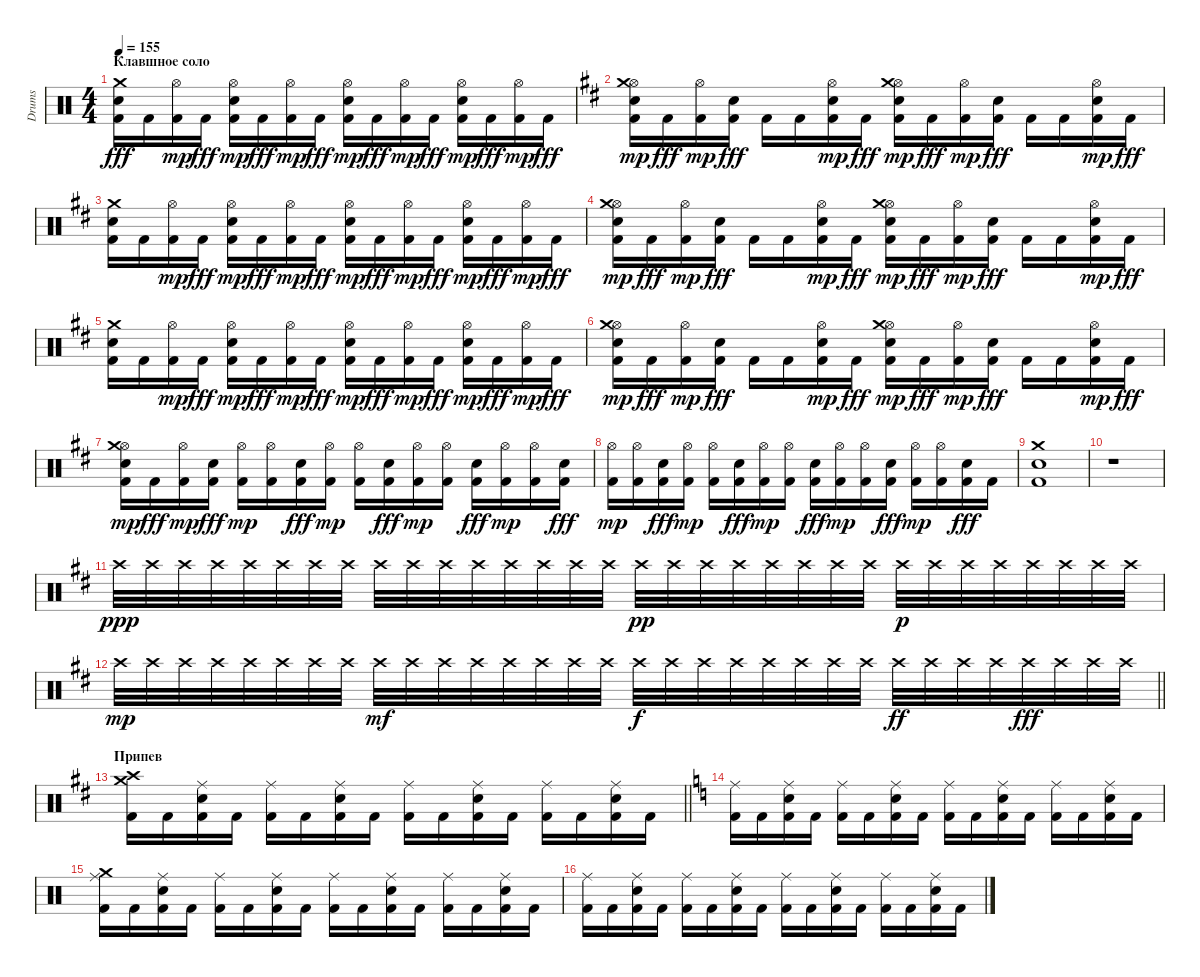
\track ("Drums" "Drums") {instrument percussion}
\staff {score}
\articulation defaults
\ts (4 4)
\section ("" "Клавшное соло")
\tempo 155
\clef neutral
\ks c
("Kick (hit) 2" "Snare (hit) 2" "Crash medium (hit)").16{dy fff} "Kick (hit) 2".16 ("Kick (hit) 2" "Hi-Hat (open)").16{dy mp} "Kick (hit) 2".16{dy fff} ("Kick (hit) 2" "Hi-Hat (open)" "Snare (hit) 2").16{dy mp} "Kick (hit) 2".16{dy fff} ("Kick (hit) 2" "Hi-Hat (open)").16{dy mp} "Kick (hit) 2".16{dy fff} ("Kick (hit) 2" "Hi-Hat (open)" "Snare (hit) 2").16{dy mp} "Kick (hit) 2".16{dy fff} ("Kick (hit) 2" "Hi-Hat (open)").16{dy mp} "Kick (hit) 2".16{dy fff} ("Kick (hit) 2" "Hi-Hat (open)" "Snare (hit) 2").16{dy mp} "Kick (hit) 2".16{dy fff} ("Kick (hit) 2" "Hi-Hat (open)").16{dy mp} "Kick (hit) 2".16{dy fff} |
\ks d
("Kick (hit) 2" "Hi-Hat (open)" "Snare (hit) 2" "Crash medium (hit)").16{dy mp} "Kick (hit) 2".16{dy fff} ("Kick (hit) 2" "Hi-Hat (open)").16{dy mp} ("Kick (hit) 2" "Snare (hit) 2").16{dy fff} "Kick (hit) 2".16 "Kick (hit) 2".16 ("Kick (hit) 2" "Hi-Hat (open)" "Snare (hit) 2").16{dy mp} "Kick (hit) 2".16{dy fff} ("Kick (hit) 2" "Hi-Hat (open)" "Snare (hit) 2" "Crash medium (hit)").16{dy mp} "Kick (hit) 2".16{dy fff} ("Kick (hit) 2" "Hi-Hat (open)").16{dy mp} ("Kick (hit) 2" "Snare (hit) 2").16{dy fff} "Kick (hit) 2".16 "Kick (hit) 2".16 ("Kick (hit) 2" "Hi-Hat (open)" "Snare (hit) 2").16{dy mp} "Kick (hit) 2".16{dy fff} |
("Kick (hit) 2" "Snare (hit) 2" "Crash medium (hit)").16 "Kick (hit) 2".16 ("Kick (hit) 2" "Hi-Hat (open)").16{dy mp} "Kick (hit) 2".16{dy fff} ("Kick (hit) 2" "Hi-Hat (open)" "Snare (hit) 2").16{dy mp} "Kick (hit) 2".16{dy fff} ("Kick (hit) 2" "Hi-Hat (open)").16{dy mp} "Kick (hit) 2".16{dy fff} ("Kick (hit) 2" "Hi-Hat (open)" "Snare (hit) 2").16{dy mp} "Kick (hit) 2".16{dy fff} ("Kick (hit) 2" "Hi-Hat (open)").16{dy mp} "Kick (hit) 2".16{dy fff} ("Kick (hit) 2" "Hi-Hat (open)" "Snare (hit) 2").16{dy mp} "Kick (hit) 2".16{dy fff} ("Kick (hit) 2" "Hi-Hat (open)").16{dy mp} "Kick (hit) 2".16{dy fff} |
("Kick (hit) 2" "Hi-Hat (open)" "Snare (hit) 2" "Crash medium (hit)").16{dy mp} "Kick (hit) 2".16{dy fff} ("Kick (hit) 2" "Hi-Hat (open)").16{dy mp} ("Kick (hit) 2" "Snare (hit) 2").16{dy fff} "Kick (hit) 2".16 "Kick (hit) 2".16 ("Kick (hit) 2" "Hi-Hat (open)" "Snare (hit) 2").16{dy mp} "Kick (hit) 2".16{dy fff} ("Kick (hit) 2" "Hi-Hat (open)" "Snare (hit) 2" "Crash medium (hit)").16{dy mp} "Kick (hit) 2".16{dy fff} ("Kick (hit) 2" "Hi-Hat (open)").16{dy mp} ("Kick (hit) 2" "Snare (hit) 2").16{dy fff} "Kick (hit) 2".16 "Kick (hit) 2".16 ("Kick (hit) 2" "Hi-Hat (open)" "Snare (hit) 2").16{dy mp} "Kick (hit) 2".16{dy fff} |
("Kick (hit) 2" "Snare (hit) 2" "Crash medium (hit)").16 "Kick (hit) 2".16 ("Kick (hit) 2" "Hi-Hat (open)").16{dy mp} "Kick (hit) 2".16{dy fff} ("Kick (hit) 2" "Hi-Hat (open)" "Snare (hit) 2").16{dy mp} "Kick (hit) 2".16{dy fff} ("Kick (hit) 2" "Hi-Hat (open)").16{dy mp} "Kick (hit) 2".16{dy fff} ("Kick (hit) 2" "Hi-Hat (open)" "Snare (hit) 2").16{dy mp} "Kick (hit) 2".16{dy fff} ("Kick (hit) 2" "Hi-Hat (open)").16{dy mp} "Kick (hit) 2".16{dy fff} ("Kick (hit) 2" "Hi-Hat (open)" "Snare (hit) 2").16{dy mp} "Kick (hit) 2".16{dy fff} ("Kick (hit) 2" "Hi-Hat (open)").16{dy mp} "Kick (hit) 2".16{dy fff} |
("Kick (hit) 2" "Hi-Hat (open)" "Snare (hit) 2" "Crash medium (hit)").16{dy mp} "Kick (hit) 2".16{dy fff} ("Kick (hit) 2" "Hi-Hat (open)").16{dy mp} ("Kick (hit) 2" "Snare (hit) 2").16{dy fff} "Kick (hit) 2".16 "Kick (hit) 2".16 ("Kick (hit) 2" "Hi-Hat (open)" "Snare (hit) 2").16{dy mp} "Kick (hit) 2".16{dy fff} ("Kick (hit) 2" "Hi-Hat (open)" "Snare (hit) 2" "Crash medium (hit)").16{dy mp} "Kick (hit) 2".16{dy fff} ("Kick (hit) 2" "Hi-Hat (open)").16{dy mp} ("Kick (hit) 2" "Snare (hit) 2").16{dy fff} "Kick (hit) 2".16 "Kick (hit) 2".16 ("Kick (hit) 2" "Hi-Hat (open)" "Snare (hit) 2").16{dy mp} "Kick (hit) 2".16{dy fff} |
("Kick (hit) 2" "Hi-Hat (open)" "Snare (hit) 2" "Crash medium (hit)").16{dy mp} "Kick (hit) 2".16{dy fff} ("Kick (hit) 2" "Hi-Hat (open)").16{dy mp} ("Kick (hit) 2" "Snare (hit) 2").16{dy fff} ("Kick (hit) 2" "Hi-Hat (open)").16{dy mp} ("Kick (hit) 2" "Hi-Hat (open)").16 ("Kick (hit) 2" "Snare (hit) 2").16{dy fff} ("Kick (hit) 2" "Hi-Hat (open)").16{dy mp} ("Kick (hit) 2" "Hi-Hat (open)").16 ("Kick (hit) 2" "Snare (hit) 2").16{dy fff} ("Kick (hit) 2" "Hi-Hat (open)").16{dy mp} ("Kick (hit) 2" "Hi-Hat (open)").16 ("Kick (hit) 2" "Snare (hit) 2").16{dy fff} ("Kick (hit) 2" "Hi-Hat (open)").16{dy mp} ("Kick (hit) 2" "Hi-Hat (open)").16 ("Kick (hit) 2" "Snare (hit) 2").16{dy fff} |
("Kick (hit) 2" "Hi-Hat (open)").16{dy mp} ("Kick (hit) 2" "Hi-Hat (open)").16 ("Kick (hit) 2" "Snare (hit) 2").16{dy fff} ("Kick (hit) 2" "Hi-Hat (open)").16{dy mp} ("Kick (hit) 2" "Hi-Hat (open)").16 ("Kick (hit) 2" "Snare (hit) 2").16{dy fff} ("Kick (hit) 2" "Hi-Hat (open)").16{dy mp} ("Kick (hit) 2" "Hi-Hat (open)").16 ("Kick (hit) 2" "Snare (hit) 2").16{dy fff} ("Kick (hit) 2" "Hi-Hat (open)").16{dy mp} ("Kick (hit) 2" "Hi-Hat (open)").16 ("Kick (hit) 2" "Snare (hit) 2").16{dy fff} ("Kick (hit) 2" "Hi-Hat (open)").16{dy mp} ("Kick (hit) 2" "Hi-Hat (open)").16 ("Kick (hit) 2" "Snare (hit) 2").16{dy fff} "Kick (hit) 2".16 |
("Kick (hit) 2" "Snare (hit) 2" "Crash medium (hit)").1 |
r.1 |
"Crash high (hit)".32{dy ppp} "Crash high (hit)".32 "Crash high (hit)".32 "Crash high (hit)".32 "Crash high (hit)".32 "Crash high (hit)".32 "Crash high (hit)".32 "Crash high (hit)".32 "Crash high (hit)".32 "Crash high (hit)".32 "Crash high (hit)".32 "Crash high (hit)".32 "Crash high (hit)".32 "Crash high (hit)".32 "Crash high (hit)".32 "Crash high (hit)".32 "Crash high (hit)".32{dy pp} "Crash high (hit)".32 "Crash high (hit)".32 "Crash high (hit)".32 "Crash high (hit)".32 "Crash high (hit)".32 "Crash high (hit)".32 "Crash high (hit)".32 "Crash high (hit)".32{dy p} "Crash high (hit)".32 "Crash high (hit)".32 "Crash high (hit)".32 "Crash high (hit)".32 "Crash high (hit)".32 "Crash high (hit)".32 "Crash high (hit)".32 |
\barLineRight lightlight "Crash high (hit)".32{dy mp} "Crash high (hit)".32 "Crash high (hit)".32 "Crash high (hit)".32 "Crash high (hit)".32 "Crash high (hit)".32 "Crash high (hit)".32 "Crash high (hit)".32 "Crash high (hit)".32{dy mf} "Crash high (hit)".32 "Crash high (hit)".32 "Crash high (hit)".32 "Crash high (hit)".32 "Crash high (hit)".32 "Crash high (hit)".32 "Crash high (hit)".32 "Crash high (hit)".32{dy f} "Crash high (hit)".32 "Crash high (hit)".32 "Crash high (hit)".32 "Crash high (hit)".32 "Crash high (hit)".32 "Crash high (hit)".32 "Crash high (hit)".32 "Crash high (hit)".32{dy ff} "Crash high (hit)".32 "Crash high (hit)".32 "Crash high (hit)".32 "Crash high (hit)".32{dy fff} "Crash high (hit)".32 "Crash high (hit)".32 "Crash high (hit)".32
|
\section ("" "Припев")
\barLineRight lightlight
("Kick (hit) 2" "Crash high (hit)" "Crash medium (hit)").16 "Kick (hit) 2".16 ("Kick (hit) 2" "Ride (middle)" "Snare (hit) 2").16 "Kick (hit) 2".16 ("Kick (hit) 2" "Ride (middle)").16 "Kick (hit) 2".16 ("Kick (hit) 2" "Ride (middle)" "Snare (hit) 2").16 "Kick (hit) 2".16 ("Kick (hit) 2" "Ride (middle)").16 "Kick (hit) 2".16 ("Kick (hit) 2" "Ride (middle)" "Snare (hit) 2").16 "Kick (hit) 2".16 ("Kick (hit) 2" "Ride (middle)").16 "Kick (hit) 2".16 ("Kick (hit) 2" "Ride (middle)" "Snare (hit) 2").16 "Kick (hit) 2".16 |
\ks c
("Kick (hit) 2" "Ride (middle)").16 "Kick (hit) 2".16 ("Kick (hit) 2" "Ride (middle)" "Snare (hit) 2").16 "Kick (hit) 2".16 ("Kick (hit) 2" "Ride (middle)").16 "Kick (hit) 2".16 ("Kick (hit) 2" "Ride (middle)" "Snare (hit) 2").16 "Kick (hit) 2".16 ("Kick (hit) 2" "Ride (middle)").16 "Kick (hit) 2".16 ("Kick (hit) 2" "Ride (middle)" "Snare (hit) 2").16 "Kick (hit) 2".16 ("Kick (hit) 2" "Ride (middle)").16 "Kick (hit) 2".16 ("Kick (hit) 2" "Ride (middle)" "Snare (hit) 2").16 "Kick (hit) 2".16 |
("Kick (hit) 2" "Ride (middle)" "Crash medium (hit)").16 "Kick (hit) 2".16 ("Kick (hit) 2" "Ride (middle)" "Snare (hit) 2").16 "Kick (hit) 2".16 ("Kick (hit) 2" "Ride (middle)").16 "Kick (hit) 2".16 ("Kick (hit) 2" "Ride (middle)" "Snare (hit) 2").16 "Kick (hit) 2".16 ("Kick (hit) 2" "Ride (middle)").16 "Kick (hit) 2".16 ("Kick (hit) 2" "Ride (middle)" "Snare (hit) 2").16 "Kick (hit) 2".16 ("Kick (hit) 2" "Ride (middle)").16 "Kick (hit) 2".16 ("Kick (hit) 2" "Ride (middle)" "Snare (hit) 2").16 "Kick (hit) 2".16 |
("Kick (hit) 2" "Ride (middle)").16 "Kick (hit) 2".16 ("Kick (hit) 2" "Ride (middle)" "Snare (hit) 2").16 "Kick (hit) 2".16 ("Kick (hit) 2" "Ride (middle)").16 "Kick (hit) 2".16 ("Kick (hit) 2" "Ride (middle)" "Snare (hit) 2").16 "Kick (hit) 2".16 ("Kick (hit) 2" "Ride (middle)").16 "Kick (hit) 2".16 ("Kick (hit) 2" "Ride (middle)" "Snare (hit) 2").16 "Kick (hit) 2".16 ("Kick (hit) 2" "Ride (middle)").16 "Kick (hit) 2".16 ("Kick (hit) 2" "Ride (middle)" "Snare (hit) 2").16 "Kick (hit) 2".16
